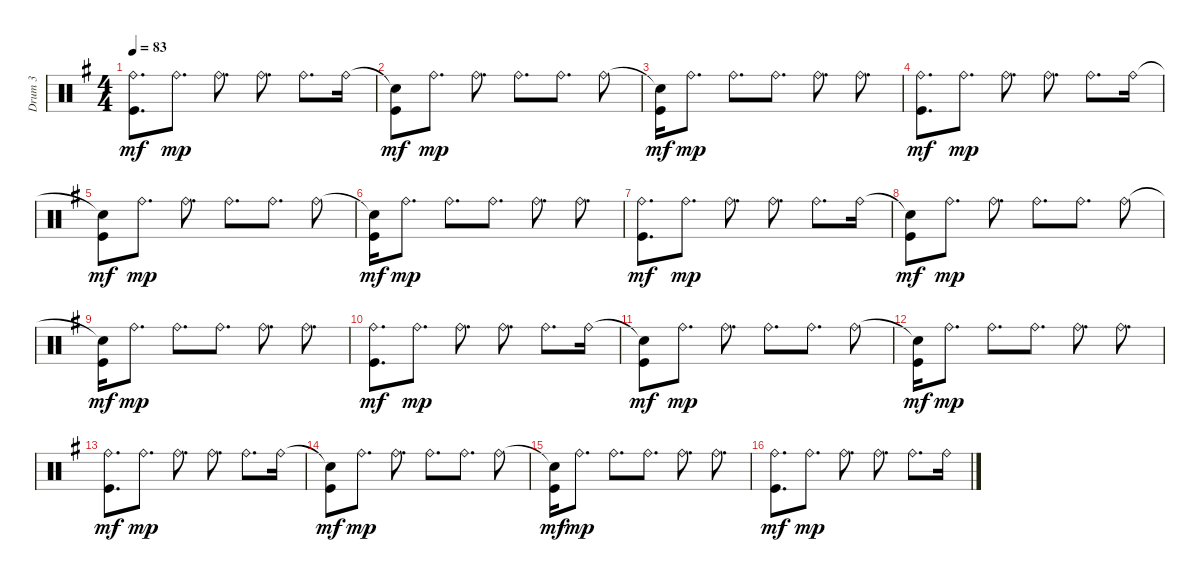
\track ("Drum 3" "Drum 3") {instrument percussion}
\staff {score}
\articulation defaults
\ts (4 4)
\tempo 83
\clef neutral
\ks eminor
("Ride (bell)" "Kick (hit)").8{d dy mf} "Ride (bell)".8{d dy mp} "Ride (bell)".8{d} "Ride (bell)".8{d} "Ride (bell)".8{d} "Ride (bell)".16 |
("Snare (hit)"{t} "Kick (hit)").8{dy mf} "Ride (bell)".8{d dy mp} "Ride (bell)".8{d} "Ride (bell)".8{d} "Ride (bell)".8{d} "Ride (bell)".8 |
("Snare (hit)"{t} "Kick (hit)").16{dy mf} "Ride (bell)".8{d dy mp} "Ride (bell)".8{d} "Ride (bell)".8{d} "Ride (bell)".8{d} "Ride (bell)".8{d} |
("Ride (bell)" "Kick (hit)").8{d dy mf} "Ride (bell)".8{d dy mp} "Ride (bell)".8{d} "Ride (bell)".8{d} "Ride (bell)".8{d} "Ride (bell)".16 |
("Snare (hit)"{t} "Kick (hit)").8{dy mf} "Ride (bell)".8{d dy mp} "Ride (bell)".8{d} "Ride (bell)".8{d} "Ride (bell)".8{d} "Ride (bell)".8 |
("Snare (hit)"{t} "Kick (hit)").16{dy mf} "Ride (bell)".8{d dy mp} "Ride (bell)".8{d} "Ride (bell)".8{d} "Ride (bell)".8{d} "Ride (bell)".8{d} |
("Ride (bell)" "Kick (hit)").8{d dy mf} "Ride (bell)".8{d dy mp} "Ride (bell)".8{d} "Ride (bell)".8{d} "Ride (bell)".8{d} "Ride (bell)".16 |
("Snare (hit)"{t} "Kick (hit)").8{dy mf} "Ride (bell)".8{d dy mp} "Ride (bell)".8{d} "Ride (bell)".8{d} "Ride (bell)".8{d} "Ride (bell)".8 |
("Snare (hit)"{t} "Kick (hit)").16{dy mf} "Ride (bell)".8{d dy mp} "Ride (bell)".8{d} "Ride (bell)".8{d} "Ride (bell)".8{d} "Ride (bell)".8{d} |
("Ride (bell)" "Kick (hit)").8{d dy mf} "Ride (bell)".8{d dy mp} "Ride (bell)".8{d} "Ride (bell)".8{d} "Ride (bell)".8{d} "Ride (bell)".16 |
("Snare (hit)"{t} "Kick (hit)").8{dy mf} "Ride (bell)".8{d dy mp} "Ride (bell)".8{d} "Ride (bell)".8{d} "Ride (bell)".8{d} "Ride (bell)".8 |
("Snare (hit)"{t} "Kick (hit)").16{dy mf} "Ride (bell)".8{d dy mp} "Ride (bell)".8{d} "Ride (bell)".8{d} "Ride (bell)".8{d} "Ride (bell)".8{d} |
("Ride (bell)" "Kick (hit)").8{d dy mf} "Ride (bell)".8{d dy mp} "Ride (bell)".8{d} "Ride (bell)".8{d} "Ride (bell)".8{d} "Ride (bell)".16 |
("Snare (hit)"{t} "Kick (hit)").8{dy mf} "Ride (bell)".8{d dy mp} "Ride (bell)".8{d} "Ride (bell)".8{d} "Ride (bell)".8{d} "Ride (bell)".8 |
("Snare (hit)"{t} "Kick (hit)").16{dy mf} "Ride (bell)".8{d dy mp} "Ride (bell)".8{d} "Ride (bell)".8{d} "Ride (bell)".8{d} "Ride (bell)".8{d} |
("Ride (bell)" "Kick (hit)").8{d dy mf} "Ride (bell)".8{d dy mp} "Ride (bell)".8{d} "Ride (bell)".8{d} "Ride (bell)".8{d} "Ride (bell)".16
